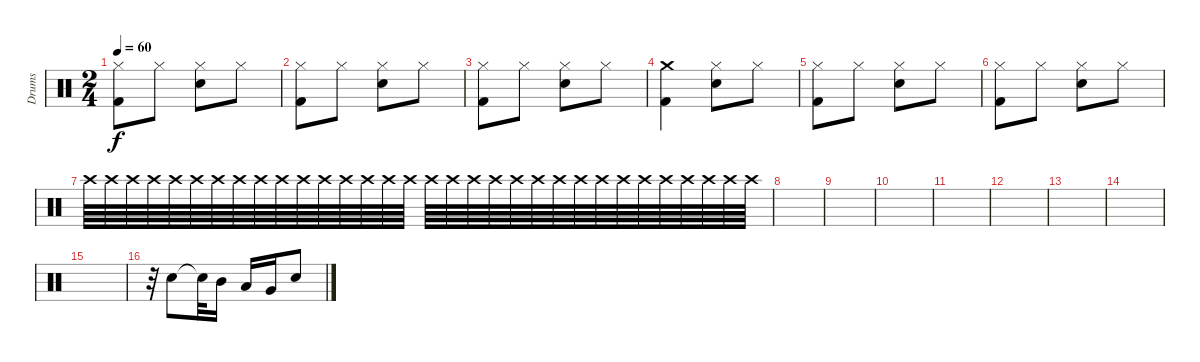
\track ("Drums" "Drums") {instrument percussion}
\staff {score}
\articulation defaults
\ts (2 4)
\tempo 60
\clef neutral
\ks c
("Hi-Hat (closed)" "Kick (hit) 2").8{dy f} "Hi-Hat (closed)".8 ("Hi-Hat (closed)" "Electric Snare (hit)").8 "Hi-Hat (closed)".8 |
("Hi-Hat (closed)" "Kick (hit) 2").8 "Hi-Hat (closed)".8 ("Hi-Hat (closed)" "Electric Snare (hit)").8 "Hi-Hat (closed)".8 |
("Hi-Hat (closed)" "Kick (hit) 2").8 "Hi-Hat (closed)".8 ("Hi-Hat (closed)" "Electric Snare (hit)").8 "Hi-Hat (closed)".8 |
("Crash medium (hit)" "Kick (hit) 2").4 ("Hi-Hat (closed)" "Electric Snare (hit)").8 "Hi-Hat (closed)".8 |
("Hi-Hat (closed)" "Kick (hit) 2").8 "Hi-Hat (closed)".8 ("Hi-Hat (closed)" "Electric Snare (hit)").8 "Hi-Hat (closed)".8 |
("Hi-Hat (closed)" "Kick (hit) 2").8 "Hi-Hat (closed)".8 ("Hi-Hat (closed)" "Electric Snare (hit)").8 "Hi-Hat (closed)".8 |
"Crash high (hit)".64{volume 0} "Crash high (hit)".64{volume 0} "Crash high (hit)".64{volume 0} "Crash high (hit)".64{volume 0} "Crash high (hit)".64{volume 0} "Crash high (hit)".64{volume 0} "Crash high (hit)".64{volume 0} "Crash high (hit)".64{volume 3} "Crash high (hit)".64{volume 3} "Crash high (hit)".64{volume 3} "Crash high (hit)".64{volume 4} "Crash high (hit)".64{volume 4} "Crash high (hit)".64{volume 5} "Crash high (hit)".64{volume 5} "Crash high (hit)".64{volume 5} "Crash high (hit)".64{volume 5} "Crash high (hit)".64{volume 6} "Crash high (hit)".64{volume 6} "Crash high (hit)".64{volume 6} "Crash high (hit)".64{volume 6} "Crash high (hit)".64{volume 8} "Crash high (hit)".64{volume 8} "Crash high (hit)".64{volume 8} "Crash high (hit)".64{volume 8} "Crash high (hit)".64{volume 6} "Crash high (hit)".64{volume 6} "Crash high (hit)".64{volume 6} "Crash high (hit)".64{volume 6} "Crash high (hit)".64{volume 5} "Crash high (hit)".64{volume 4} "Crash high (hit)".64{volume 3} "Crash high (hit)".64{volume 2} |
|
|
|
|
|
|
|
|
r.32 "Electric Snare (hit)".8{volume 16} "Snare (hit)"{t}.32 "Mid Tom (hit)".16 "Low Tom (hit)".16 "Very Low Tom (hit)".16 "Electric Snare (hit)".8
